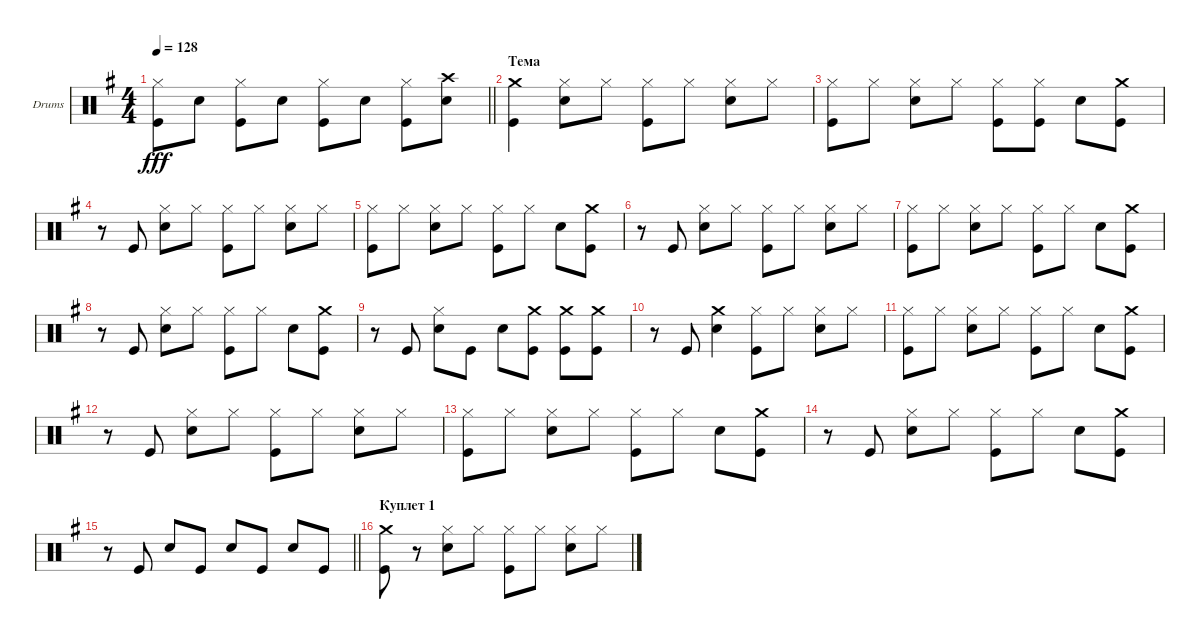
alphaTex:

\bracketExtendMode groupsimilarinstruments
\firstSystemTrackNameOrientation horizontal
\otherSystemsTrackNameOrientation horizontal
\track ("Барабаны" "Drums") {instrument percussion}
\staff {score}
\articulation defaults
\ts (4 4)
\tempo 128
\clef neutral
\barLineRight lightlight
\ks eminor
("Kick (hit)" "Hi-Hat (closed)").8{dy fff} "Snare (hit) 2".8 ("Kick (hit)" "Hi-Hat (closed)").8 "Snare (hit) 2".8 ("Kick (hit)" "Hi-Hat (closed)").8 "Snare (hit) 2".8 ("Kick (hit)" "Hi-Hat (closed)").8 ("Snare (hit) 2" "Crash high (hit)").8 |
\section ("" "Тема")
("Crash medium (hit)" "Kick (hit)").4 ("Hi-Hat (closed)" "Snare (hit) 2").8 "Hi-Hat (closed)".8 ("Hi-Hat (closed)" "Kick (hit)").8 "Hi-Hat (closed)".8 ("Hi-Hat (closed)" "Snare (hit) 2").8 "Hi-Hat (closed)".8 |
("Hi-Hat (closed)" "Kick (hit)").8 "Hi-Hat (closed)".8 ("Hi-Hat (closed)" "Snare (hit) 2").8 "Hi-Hat (closed)".8 ("Kick (hit)" "Hi-Hat (closed)").8 ("Hi-Hat (closed)" "Kick (hit)").8 "Snare (hit) 2".8 ("Kick (hit)" "Crash medium (hit)").8 |
r.8 "Kick (hit)".8 ("Hi-Hat (closed)" "Snare (hit) 2").8 "Hi-Hat (closed)".8 ("Hi-Hat (closed)" "Kick (hit)").8 "Hi-Hat (closed)".8 ("Hi-Hat (closed)" "Snare (hit) 2").8 "Hi-Hat (closed)".8 |
("Hi-Hat (closed)" "Kick (hit)").8 "Hi-Hat (closed)".8 ("Hi-Hat (closed)" "Snare (hit) 2").8 "Hi-Hat (closed)".8 ("Kick (hit)" "Hi-Hat (closed)").8 "Hi-Hat (closed)".8 "Snare (hit) 2".8 ("Kick (hit)" "Crash medium (hit)").8 |
r.8 "Kick (hit)".8 ("Hi-Hat (closed)" "Snare (hit) 2").8 "Hi-Hat (closed)".8 ("Hi-Hat (closed)" "Kick (hit)").8 "Hi-Hat (closed)".8 ("Hi-Hat (closed)" "Snare (hit) 2").8 "Hi-Hat (closed)".8 |
("Hi-Hat (closed)" "Kick (hit)").8 "Hi-Hat (closed)".8 ("Hi-Hat (closed)" "Snare (hit) 2").8 "Hi-Hat (closed)".8 ("Kick (hit)" "Hi-Hat (closed)").8 "Hi-Hat (closed)".8 "Snare (hit) 2".8 ("Kick (hit)" "Crash medium (hit)").8 |
r.8 "Kick (hit)".8 ("Hi-Hat (closed)" "Snare (hit) 2").8 "Hi-Hat (closed)".8 ("Hi-Hat (closed)" "Kick (hit)").8 "Hi-Hat (closed)".8 "Snare (hit) 2".8 ("Kick (hit)" "Crash medium (hit)").8 |
r.8 "Kick (hit)".8 ("Hi-Hat (closed)" "Snare (hit) 2").8 "Kick (hit)".8 "Snare (hit) 2".8 ("Kick (hit)" "Crash medium (hit)").8 ("Kick (hit)" "Crash medium (hit)").8 ("Kick (hit)" "Crash medium (hit)").8 |
r.8 "Kick (hit)".8 ("Crash medium (hit)" "Snare (hit) 2").4 ("Hi-Hat (closed)" "Kick (hit)").8 "Hi-Hat (closed)".8 ("Hi-Hat (closed)" "Snare (hit) 2").8 "Hi-Hat (closed)".8 |
("Hi-Hat (closed)" "Kick (hit)").8 "Hi-Hat (closed)".8 ("Hi-Hat (closed)" "Snare (hit) 2").8 "Hi-Hat (closed)".8 ("Kick (hit)" "Hi-Hat (closed)").8 "Hi-Hat (closed)".8 "Snare (hit) 2".8 ("Kick (hit)" "Crash medium (hit)").8 |
r.8 "Kick (hit)".8 ("Hi-Hat (closed)" "Snare (hit) 2").8 "Hi-Hat (closed)".8 ("Hi-Hat (closed)" "Kick (hit)").8 "Hi-Hat (closed)".8 ("Hi-Hat (closed)" "Snare (hit) 2").8 "Hi-Hat (closed)".8 |
("Hi-Hat (closed)" "Kick (hit)").8 "Hi-Hat (closed)".8 ("Hi-Hat (closed)" "Snare (hit) 2").8 "Hi-Hat (closed)".8 ("Kick (hit)" "Hi-Hat (closed)").8 "Hi-Hat (closed)".8 "Snare (hit) 2".8 ("Kick (hit)" "Crash medium (hit)").8 |
r.8 "Kick (hit)".8 ("Hi-Hat (closed)" "Snare (hit) 2").8 "Hi-Hat (closed)".8 ("Kick (hit)" "Hi-Hat (closed)").8 "Hi-Hat (closed)".8 "Snare (hit) 2".8 ("Kick (hit)" "Crash medium (hit)").8 |
\barLineRight lightlight
r.8 "Kick (hit)".8 "Snare (hit) 2".8 "Kick (hit)".8 "Snare (hit) 2".8 "Kick (hit)".8 "Snare (hit) 2".8 "Kick (hit)".8 |
\section ("" "Куплет 1")
("Crash medium (hit)" "Kick (hit)").8 r.8 ("Hi-Hat (closed)" "Snare (hit) 2").8 "Hi-Hat (closed)".8 ("Hi-Hat (closed)" "Kick (hit)").8 "Hi-Hat (closed)".8 ("Hi-Hat (closed)" "Snare (hit) 2").8 "Hi-Hat (closed)".8
